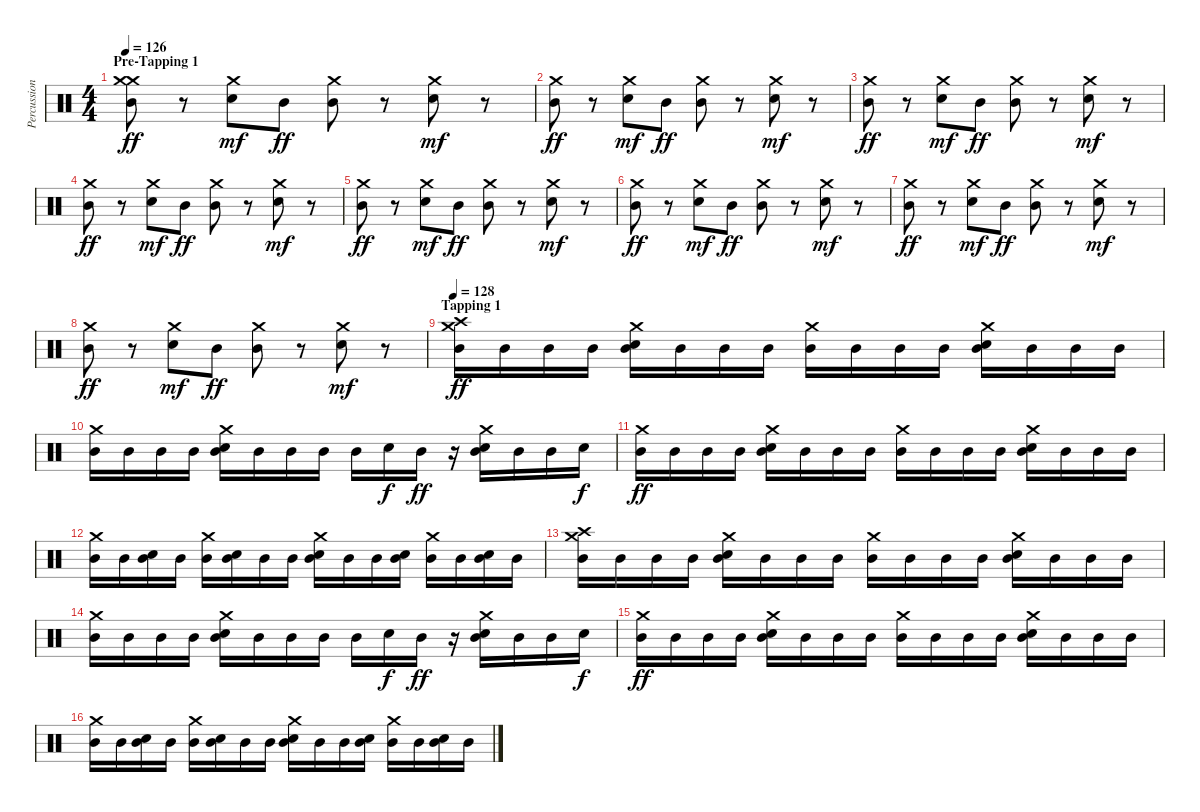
\track ("Percussion" "Percussion") {instrument percussion}
\staff {score}
\articulation defaults
\ts (4 4)
\section ("" "Pre-Tapping 1")
\tempo 126
\clef neutral
\ks c
("Crash medium (hit)" "Crash medium (hit)" "Mid Tom (hit)").8{dy ff} r.8 ("Crash medium (hit)" "Electric Snare (hit)").8{dy mf} "Mid Tom (hit)".8{dy ff} ("Crash medium (hit)" "Mid Tom (hit)").8 r.8 ("Crash medium (hit)" "Electric Snare (hit)").8{dy mf} r.8 |
("Crash medium (hit)" "Mid Tom (hit)").8{dy ff} r.8 ("Crash medium (hit)" "Electric Snare (hit)").8{dy mf} "Mid Tom (hit)".8{dy ff} ("Crash medium (hit)" "Mid Tom (hit)").8 r.8 ("Crash medium (hit)" "Electric Snare (hit)").8{dy mf} r.8 |
("Crash medium (hit)" "Mid Tom (hit)").8{dy ff} r.8 ("Crash medium (hit)" "Electric Snare (hit)").8{dy mf} "Mid Tom (hit)".8{dy ff} ("Crash medium (hit)" "Mid Tom (hit)").8 r.8 ("Crash medium (hit)" "Electric Snare (hit)").8{dy mf} r.8 |
("Crash medium (hit)" "Mid Tom (hit)").8{dy ff} r.8 ("Crash medium (hit)" "Electric Snare (hit)").8{dy mf} "Mid Tom (hit)".8{dy ff} ("Crash medium (hit)" "Mid Tom (hit)").8 r.8 ("Crash medium (hit)" "Electric Snare (hit)").8{dy mf} r.8 |
("Crash medium (hit)" "Mid Tom (hit)").8{dy ff} r.8 ("Crash medium (hit)" "Electric Snare (hit)").8{dy mf} "Mid Tom (hit)".8{dy ff} ("Crash medium (hit)" "Mid Tom (hit)").8 r.8 ("Crash medium (hit)" "Electric Snare (hit)").8{dy mf} r.8 |
("Crash medium (hit)" "Mid Tom (hit)").8{dy ff} r.8 ("Crash medium (hit)" "Electric Snare (hit)").8{dy mf} "Mid Tom (hit)".8{dy ff} ("Crash medium (hit)" "Mid Tom (hit)").8 r.8 ("Crash medium (hit)" "Electric Snare (hit)").8{dy mf} r.8 |
("Crash medium (hit)" "Mid Tom (hit)").8{dy ff} r.8 ("Crash medium (hit)" "Electric Snare (hit)").8{dy mf} "Mid Tom (hit)".8{dy ff} ("Crash medium (hit)" "Mid Tom (hit)").8 r.8 ("Crash medium (hit)" "Electric Snare (hit)").8{dy mf} r.8 |
("Crash medium (hit)" "Mid Tom (hit)").8{dy ff} r.8 ("Crash medium (hit)" "Electric Snare (hit)").8{dy mf} "Mid Tom (hit)".8{dy ff} ("Crash medium (hit)" "Mid Tom (hit)").8 r.8 ("Crash medium (hit)" "Electric Snare (hit)").8{dy mf} r.8 |
\section ("" "Tapping 1")
\tempo 128
("Crash medium (hit)" "Crash high (hit)" "Mid Tom (hit)").16{dy ff} "Mid Tom (hit)".16 "Mid Tom (hit)".16 "Mid Tom (hit)".16 ("Crash medium (hit)" "Electric Snare (hit)" "Mid Tom (hit)").16 "Mid Tom (hit)".16 "Mid Tom (hit)".16 "Mid Tom (hit)".16 ("Crash medium (hit)" "Mid Tom (hit)").16 "Mid Tom (hit)".16 "Mid Tom (hit)".16 "Mid Tom (hit)".16 ("Crash medium (hit)" "Electric Snare (hit)" "Mid Tom (hit)").16 "Mid Tom (hit)".16 "Mid Tom (hit)".16 "Mid Tom (hit)".16 |
("Crash medium (hit)" "Mid Tom (hit)").16 "Mid Tom (hit)".16 "Mid Tom (hit)".16 "Mid Tom (hit)".16 ("Crash medium (hit)" "Electric Snare (hit)" "Mid Tom (hit)").16 "Mid Tom (hit)".16 "Mid Tom (hit)".16 "Mid Tom (hit)".16 "Mid Tom (hit)".16 "Electric Snare (hit)".16{dy f} "Mid Tom (hit)".16{dy ff} r.16 ("Crash medium (hit)" "Electric Snare (hit)" "Mid Tom (hit)").16 "Mid Tom (hit)".16 "Mid Tom (hit)".16 "Electric Snare (hit)".16{dy f} |
("Crash medium (hit)" "Mid Tom (hit)").16{dy ff} "Mid Tom (hit)".16 "Mid Tom (hit)".16 "Mid Tom (hit)".16 ("Crash medium (hit)" "Electric Snare (hit)" "Mid Tom (hit)").16 "Mid Tom (hit)".16 "Mid Tom (hit)".16 "Mid Tom (hit)".16 ("Crash medium (hit)" "Mid Tom (hit)").16 "Mid Tom (hit)".16 "Mid Tom (hit)".16 "Mid Tom (hit)".16 ("Crash medium (hit)" "Electric Snare (hit)" "Mid Tom (hit)").16 "Mid Tom (hit)".16 "Mid Tom (hit)".16 "Mid Tom (hit)".16 |
("Crash medium (hit)" "Mid Tom (hit)").16 "Mid Tom (hit)".16 ("Electric Snare (hit)" "Mid Tom (hit)").16 "Mid Tom (hit)".16 ("Crash medium (hit)" "Mid Tom (hit)").16 ("Electric Snare (hit)" "Mid Tom (hit)").16 "Mid Tom (hit)".16 "Mid Tom (hit)".16 ("Crash medium (hit)" "Electric Snare (hit)" "Mid Tom (hit)").16 "Mid Tom (hit)".16 "Mid Tom (hit)".16 ("Electric Snare (hit)" "Mid Tom (hit)").16 ("Crash medium (hit)" "Mid Tom (hit)").16 "Mid Tom (hit)".16 ("Electric Snare (hit)" "Mid Tom (hit)").16 "Mid Tom (hit)".16 |
("Crash medium (hit)" "Crash high (hit)" "Mid Tom (hit)").16 "Mid Tom (hit)".16 "Mid Tom (hit)".16 "Mid Tom (hit)".16 ("Crash medium (hit)" "Electric Snare (hit)" "Mid Tom (hit)").16 "Mid Tom (hit)".16 "Mid Tom (hit)".16 "Mid Tom (hit)".16 ("Crash medium (hit)" "Mid Tom (hit)").16 "Mid Tom (hit)".16 "Mid Tom (hit)".16 "Mid Tom (hit)".16 ("Crash medium (hit)" "Electric Snare (hit)" "Mid Tom (hit)").16 "Mid Tom (hit)".16 "Mid Tom (hit)".16 "Mid Tom (hit)".16 |
("Crash medium (hit)" "Mid Tom (hit)").16 "Mid Tom (hit)".16 "Mid Tom (hit)".16 "Mid Tom (hit)".16 ("Crash medium (hit)" "Electric Snare (hit)" "Mid Tom (hit)").16 "Mid Tom (hit)".16 "Mid Tom (hit)".16 "Mid Tom (hit)".16 "Mid Tom (hit)".16 "Electric Snare (hit)".16{dy f} "Mid Tom (hit)".16{dy ff} r.16 ("Crash medium (hit)" "Electric Snare (hit)" "Mid Tom (hit)").16 "Mid Tom (hit)".16 "Mid Tom (hit)".16 "Electric Snare (hit)".16{dy f} |
("Crash medium (hit)" "Mid Tom (hit)").16{dy ff} "Mid Tom (hit)".16 "Mid Tom (hit)".16 "Mid Tom (hit)".16 ("Crash medium (hit)" "Electric Snare (hit)" "Mid Tom (hit)").16 "Mid Tom (hit)".16 "Mid Tom (hit)".16 "Mid Tom (hit)".16 ("Crash medium (hit)" "Mid Tom (hit)").16 "Mid Tom (hit)".16 "Mid Tom (hit)".16 "Mid Tom (hit)".16 ("Crash medium (hit)" "Electric Snare (hit)" "Mid Tom (hit)").16 "Mid Tom (hit)".16 "Mid Tom (hit)".16 "Mid Tom (hit)".16 |
("Crash medium (hit)" "Mid Tom (hit)").16 "Mid Tom (hit)".16 ("Electric Snare (hit)" "Mid Tom (hit)").16 "Mid Tom (hit)".16 ("Crash medium (hit)" "Mid Tom (hit)").16 ("Electric Snare (hit)" "Mid Tom (hit)").16 "Mid Tom (hit)".16 "Mid Tom (hit)".16 ("Crash medium (hit)" "Electric Snare (hit)" "Mid Tom (hit)").16 "Mid Tom (hit)".16 "Mid Tom (hit)".16 ("Electric Snare (hit)" "Mid Tom (hit)").16 ("Crash medium (hit)" "Mid Tom (hit)").16 "Mid Tom (hit)".16 ("Electric Snare (hit)" "Mid Tom (hit)").16 "Mid Tom (hit)".16
